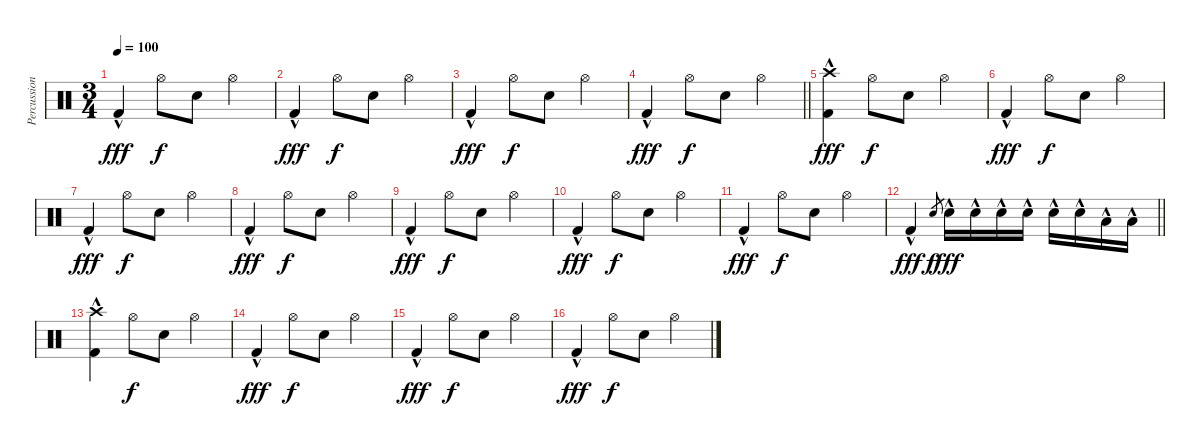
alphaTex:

\track ("Percussion" "Percussion") {instrument percussion}
\staff {score}
\articulation defaults
\ts (3 4)
\tempo 100
\clef neutral
\ks c "Kick (hit) 2"{hac}.4{dy fff} "Hi-Hat (open)".8{dy f} "Snare (hit) 2".8 "Hi-Hat (open)".4
|
"Kick (hit) 2"{hac}.4{dy fff} "Hi-Hat (open)".8{dy f} "Snare (hit) 2".8 "Hi-Hat (open)".4 |
"Kick (hit) 2"{hac}.4{dy fff} "Hi-Hat (open)".8{dy f} "Snare (hit) 2".8 "Hi-Hat (open)".4 |
\barLineRight lightlight "Kick (hit) 2"{hac}.4{dy fff} "Hi-Hat (open)".8{dy f} "Snare (hit) 2".8 "Hi-Hat (open)".4
|
("Crash high (hit)" "Kick (hit) 2"{hac}).4{dy fff} "Hi-Hat (open)".8{dy f} "Snare (hit) 2".8 "Hi-Hat (open)".4 |
"Kick (hit) 2"{hac}.4{dy fff} "Hi-Hat (open)".8{dy f} "Snare (hit) 2".8 "Hi-Hat (open)".4 |
"Kick (hit) 2"{hac}.4{dy fff} "Hi-Hat (open)".8{dy f} "Snare (hit) 2".8 "Hi-Hat (open)".4 |
"Kick (hit) 2"{hac}.4{dy fff} "Hi-Hat (open)".8{dy f} "Snare (hit) 2".8 "Hi-Hat (open)".4 |
"Kick (hit) 2"{hac}.4{dy fff} "Hi-Hat (open)".8{dy f} "Snare (hit) 2".8 "Hi-Hat (open)".4 |
"Kick (hit) 2"{hac}.4{dy fff} "Hi-Hat (open)".8{dy f} "Snare (hit) 2".8 "Hi-Hat (open)".4 |
"Kick (hit) 2"{hac}.4{dy fff} "Hi-Hat (open)".8{dy f} "Snare (hit) 2".8 "Hi-Hat (open)".4 |
\barLineRight lightlight "Kick (hit) 2"{hac}.4{dy fff} "Snare (hit) 2".8{gr dy f} "Snare (hit) 2"{hac}.16{dy fff} "Snare (hit) 2"{hac}.16 "Snare (hit) 2"{hac}.16 "Snare (hit) 2"{hac}.16 "Snare (hit) 2"{hac}.16 "Snare (hit) 2"{hac}.16 "Low Tom (hit)"{hac}.16 "Low Tom (hit)"{hac}.16
|
("Crash high (hit)" "Kick (hit) 2"{hac}).4 "Hi-Hat (open)".8{dy f} "Snare (hit) 2".8 "Hi-Hat (open)".4 |
"Kick (hit) 2"{hac}.4{dy fff} "Hi-Hat (open)".8{dy f} "Snare (hit) 2".8 "Hi-Hat (open)".4 |
"Kick (hit) 2"{hac}.4{dy fff} "Hi-Hat (open)".8{dy f} "Snare (hit) 2".8 "Hi-Hat (open)".4 |
"Kick (hit) 2"{hac}.4{dy fff} "Hi-Hat (open)".8{dy f} "Snare (hit) 2".8 "Hi-Hat (open)".4
